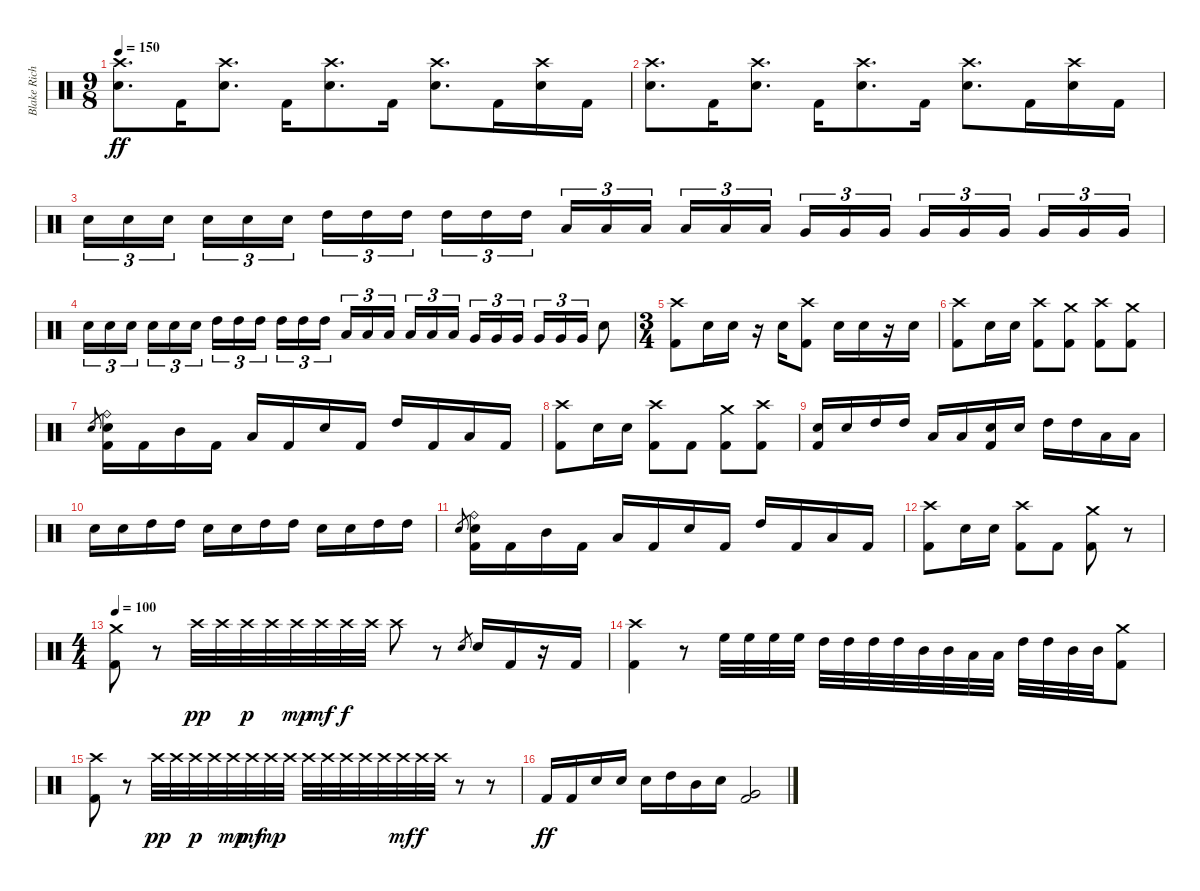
\track ("Blake Richardson" "Blake Rich") {instrument percussion}
\staff {score}
\articulation defaults
\ts (9 8)
\tempo 150
\clef neutral
\ks c
("Crash high (hit)" "Electric Snare (hit)").8{d dy ff} "Kick (hit) 2".16 ("Crash high (hit)" "Electric Snare (hit)").8{d} "Kick (hit) 2".16 ("Crash high (hit)" "Electric Snare (hit)").8{d} "Kick (hit) 2".16 ("Crash high (hit)" "Electric Snare (hit)").8{d} "Kick (hit) 2".16 ("Crash high (hit)" "Electric Snare (hit)").16 "Kick (hit) 2".16 |
("Crash high (hit)" "Electric Snare (hit)").8{d} "Kick (hit) 2".16 ("Crash high (hit)" "Electric Snare (hit)").8{d} "Kick (hit) 2".16 ("Crash high (hit)" "Electric Snare (hit)").8{d} "Kick (hit) 2".16 ("Crash high (hit)" "Electric Snare (hit)").8{d} "Kick (hit) 2".16 ("Crash high (hit)" "Electric Snare (hit)").16 "Kick (hit) 2".16 |
"Electric Snare (hit)".16{tu (3 2)} "Electric Snare (hit)".16{tu (3 2)} "Electric Snare (hit)".16{tu (3 2) beam splitsecondary} "Electric Snare (hit)".16{tu (3 2)} "Electric Snare (hit)".16{tu (3 2)} "Electric Snare (hit)".16{tu (3 2) beam splitsecondary} "High Tom (hit)".16{tu (3 2)} "High Tom (hit)".16{tu (3 2)} "High Tom (hit)".16{tu (3 2)} "High Tom (hit)".16{tu (3 2)} "High Tom (hit)".16{tu (3 2)} "High Tom (hit)".16{tu (3 2) beam splitsecondary} "Low Tom (hit)".16{tu (3 2)} "Low Tom (hit)".16{tu (3 2)} "Low Tom (hit)".16{tu (3 2) beam splitsecondary} "Low Tom (hit)".16{tu (3 2)} "Low Tom (hit)".16{tu (3 2)} "Low Tom (hit)".16{tu (3 2)} "Very Low Tom (hit)".16{tu (3 2)} "Very Low Tom (hit)".16{tu (3 2)} "Very Low Tom (hit)".16{tu (3 2) beam splitsecondary} "Very Low Tom (hit)".16{tu (3 2)} "Very Low Tom (hit)".16{tu (3 2)} "Very Low Tom (hit)".16{tu (3 2) beam splitsecondary} "Very Low Tom (hit)".16{tu (3 2)} "Very Low Tom (hit)".16{tu (3 2)} "Very Low Tom (hit)".16{tu (3 2)} |
"Electric Snare (hit)".16{tu (3 2)} "Electric Snare (hit)".16{tu (3 2)} "Electric Snare (hit)".16{tu (3 2) beam splitsecondary} "Electric Snare (hit)".16{tu (3 2)} "Electric Snare (hit)".16{tu (3 2)} "Electric Snare (hit)".16{tu (3 2) beam splitsecondary} "High Tom (hit)".16{tu (3 2)} "High Tom (hit)".16{tu (3 2)} "High Tom (hit)".16{tu (3 2)} "High Tom (hit)".16{tu (3 2)} "High Tom (hit)".16{tu (3 2)} "High Tom (hit)".16{tu (3 2) beam splitsecondary} "Low Tom (hit)".16{tu (3 2)} "Low Tom (hit)".16{tu (3 2)} "Low Tom (hit)".16{tu (3 2) beam splitsecondary} "Low Tom (hit)".16{tu (3 2)} "Low Tom (hit)".16{tu (3 2)} "Low Tom (hit)".16{tu (3 2)} "Very Low Tom (hit)".16{tu (3 2)} "Very Low Tom (hit)".16{tu (3 2)} "Very Low Tom (hit)".16{tu (3 2) beam splitsecondary} "Very Low Tom (hit)".16{tu (3 2)} "Very Low Tom (hit)".16{tu (3 2)} "Very Low Tom (hit)".16{tu (3 2)} "Electric Snare (hit)".8 |
\ts (3 4)
("Crash high (hit)" "Kick (hit) 2").8 "Electric Snare (hit)".16 "Electric Snare (hit)".16 r.16 "Electric Snare (hit)".16 ("Crash high (hit)" "Kick (hit) 2").8 "Electric Snare (hit)".16 "Electric Snare (hit)".16 r.16 "Electric Snare (hit)".16 |
("Crash high (hit)" "Kick (hit) 2").8 "Electric Snare (hit)".16 "Electric Snare (hit)".16 ("Crash high (hit)" "Kick (hit) 2").8 ("Crash medium (hit)" "Kick (hit) 2").8 ("Crash high (hit)" "Kick (hit) 2").8 ("Crash medium (hit)" "Kick (hit) 2").8 |
"Electric Snare (hit)".8{gr} ("Ride (bell)" "Electric Snare (hit)" "Kick (hit) 2").16 "Kick (hit) 2".16 "Mid Tom (hit)".16 "Kick (hit) 2".16 "Low Tom (hit)".16 "Kick (hit) 2".16 "Electric Snare (hit)".16 "Kick (hit) 2".16 "High Tom (hit)".16 "Kick (hit) 2".16 "Low Tom (hit)".16 "Kick (hit) 2".16 |
("Crash high (hit)" "Kick (hit) 2").8 "Electric Snare (hit)".16 "Electric Snare (hit)".16 ("Crash high (hit)" "Kick (hit) 2").8 "Kick (hit) 2".8 ("Crash medium (hit)" "Kick (hit) 2").8 ("Crash high (hit)" "Kick (hit) 2").8 |
("Electric Snare (hit)" "Kick (hit) 2").16 "Electric Snare (hit)".16 "High Tom (hit)".16 "High Tom (hit)".16 "Low Tom (hit)".16 "Low Tom (hit)".16 ("Electric Snare (hit)" "Kick (hit) 2").16 "Electric Snare (hit)".16 "High Tom (hit)".16 "High Tom (hit)".16 "Low Tom (hit)".16 "Low Tom (hit)".16 |
"Electric Snare (hit)".16 "Electric Snare (hit)".16 "High Tom (hit)".16 "High Tom (hit)".16 "Electric Snare (hit)".16 "Electric Snare (hit)".16 "High Tom (hit)".16 "High Tom (hit)".16 "Electric Snare (hit)".16 "Electric Snare (hit)".16 "High Tom (hit)".16 "High Tom (hit)".16 |
"Electric Snare (hit)".8{gr} ("Ride (bell)" "Electric Snare (hit)" "Kick (hit) 2").16 "Kick (hit) 2".16 "Mid Tom (hit)".16 "Kick (hit) 2".16 "Low Tom (hit)".16 "Kick (hit) 2".16 "Electric Snare (hit)".16 "Kick (hit) 2".16 "High Tom (hit)".16 "Kick (hit) 2".16 "Low Tom (hit)".16 "Kick (hit) 2".16 |
("Crash high (hit)" "Kick (hit) 2").8 "Electric Snare (hit)".16 "Electric Snare (hit)".16 ("Crash high (hit)" "Kick (hit) 2").8 "Kick (hit) 2".8 ("Crash medium (hit)" "Kick (hit) 2").8 r.8 |
\ts (4 4)
\tempo 100
("Crash medium (hit)" "Kick (hit) 2").8 r.8 "Crash high (hit)".32{dy pp} "Crash high (hit)".32 "Crash high (hit)".32{dy p} "Crash high (hit)".32 "Crash high (hit)".32{dy mp} "Crash high (hit)".32{dy mf} "Crash high (hit)".32{dy f} "Crash high (hit)".32 "Crash high (hit)".8 r.8 "Electric Snare (hit)".8{gr} "Electric Snare (hit)".16 "Kick (hit) 2".16 r.16 "Kick (hit) 2".16 |
("Crash high (hit)" "Kick (hit) 2").4 r.8 "High Floor Tom (hit)".32 "High Floor Tom (hit)".32 "High Floor Tom (hit)".32 "High Floor Tom (hit)".32 "High Tom (hit)".32 "High Tom (hit)".32 "High Tom (hit)".32 "High Tom (hit)".32 "Mid Tom (hit)".32 "Mid Tom (hit)".32 "Low Tom (hit)".32 "Low Tom (hit)".32 "High Tom (hit)".32 "High Tom (hit)".32 "Mid Tom (hit)".32 "Mid Tom (hit)".32 ("Crash medium (hit)" "Kick (hit) 2").8 |
("Crash high (hit)" "Kick (hit) 2").8 r.8 "Crash high (hit)".32{dy pp} "Crash high (hit)".32 "Crash high (hit)".32{dy p} "Crash high (hit)".32 "Crash high (hit)".32{dy mp} "Crash high (hit)".32{dy mf} "Crash high (hit)".32{dy mp} "Crash high (hit)".32 "Crash high (hit)".32 "Crash high (hit)".32 "Crash high (hit)".32 "Crash high (hit)".32 "Crash high (hit)".32 "Crash high (hit)".32{dy mf} "Crash high (hit)".32{dy f} "Crash high (hit)".32 r.8 r.8 |
"Kick (hit) 2".16{dy ff} "Kick (hit) 2".16 "Electric Snare (hit)".16 "Electric Snare (hit)".16 "Electric Snare (hit)".16 "High Tom (hit)".16 "Mid Tom (hit)".16 "Electric Snare (hit)".16 ("Very Low Tom (hit)" "Kick (hit) 2").2
